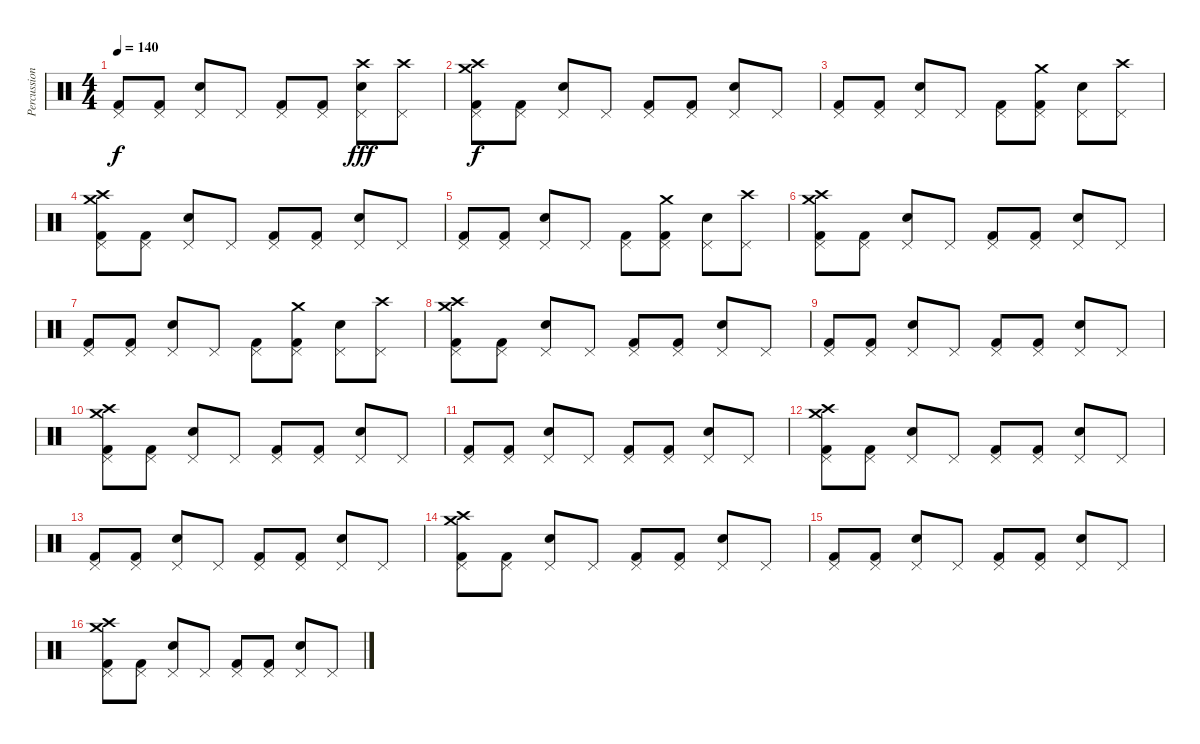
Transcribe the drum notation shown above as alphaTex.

\track ("Percussion" "Percussion") {instrument percussion}
\staff {score}
\articulation defaults
\ts (4 4)
\tempo 140
\clef neutral
\ks c
("Pedal Hi-Hat (hit)" "Kick (hit) 2").8{dy f} ("Pedal Hi-Hat (hit)" "Kick (hit) 2").8 ("Pedal Hi-Hat (hit)" "Electric Snare (hit)").8 "Pedal Hi-Hat (hit)".8 ("Pedal Hi-Hat (hit)" "Kick (hit) 2").8 ("Pedal Hi-Hat (hit)" "Kick (hit) 2").8 ("Pedal Hi-Hat (hit)" "Electric Snare (hit)" "Crash high (hit)").8{dy fff} ("Pedal Hi-Hat (hit)" "Crash high (hit)").8 |
("Pedal Hi-Hat (hit)" "Kick (hit) 2" "Crash high (hit)" "Crash medium (hit)").8{dy f} ("Pedal Hi-Hat (hit)" "Kick (hit) 2").8 ("Pedal Hi-Hat (hit)" "Electric Snare (hit)").8 "Pedal Hi-Hat (hit)".8 ("Pedal Hi-Hat (hit)" "Kick (hit) 2").8 ("Pedal Hi-Hat (hit)" "Kick (hit) 2").8 ("Pedal Hi-Hat (hit)" "Electric Snare (hit)").8 "Pedal Hi-Hat (hit)".8 |
("Pedal Hi-Hat (hit)" "Kick (hit) 2").8 ("Pedal Hi-Hat (hit)" "Kick (hit) 2").8 ("Pedal Hi-Hat (hit)" "Electric Snare (hit)").8 "Pedal Hi-Hat (hit)".8 ("Pedal Hi-Hat (hit)" "Kick (hit) 2").8 ("Pedal Hi-Hat (hit)" "Kick (hit) 2" "Crash medium (hit)").8 ("Pedal Hi-Hat (hit)" "Electric Snare (hit)").8 ("Pedal Hi-Hat (hit)" "Crash high (hit)").8 |
("Pedal Hi-Hat (hit)" "Kick (hit) 2" "Crash high (hit)" "Crash medium (hit)").8 ("Pedal Hi-Hat (hit)" "Kick (hit) 2").8 ("Pedal Hi-Hat (hit)" "Electric Snare (hit)").8 "Pedal Hi-Hat (hit)".8 ("Pedal Hi-Hat (hit)" "Kick (hit) 2").8 ("Pedal Hi-Hat (hit)" "Kick (hit) 2").8 ("Pedal Hi-Hat (hit)" "Electric Snare (hit)").8 "Pedal Hi-Hat (hit)".8 |
("Pedal Hi-Hat (hit)" "Kick (hit) 2").8 ("Pedal Hi-Hat (hit)" "Kick (hit) 2").8 ("Pedal Hi-Hat (hit)" "Electric Snare (hit)").8 "Pedal Hi-Hat (hit)".8 ("Pedal Hi-Hat (hit)" "Kick (hit) 2").8 ("Pedal Hi-Hat (hit)" "Kick (hit) 2" "Crash medium (hit)").8 ("Pedal Hi-Hat (hit)" "Electric Snare (hit)").8 ("Pedal Hi-Hat (hit)" "Crash high (hit)").8 |
("Pedal Hi-Hat (hit)" "Kick (hit) 2" "Crash high (hit)" "Crash medium (hit)").8 ("Pedal Hi-Hat (hit)" "Kick (hit) 2").8 ("Pedal Hi-Hat (hit)" "Electric Snare (hit)").8 "Pedal Hi-Hat (hit)".8 ("Pedal Hi-Hat (hit)" "Kick (hit) 2").8 ("Pedal Hi-Hat (hit)" "Kick (hit) 2").8 ("Pedal Hi-Hat (hit)" "Electric Snare (hit)").8 "Pedal Hi-Hat (hit)".8 |
("Pedal Hi-Hat (hit)" "Kick (hit) 2").8 ("Pedal Hi-Hat (hit)" "Kick (hit) 2").8 ("Pedal Hi-Hat (hit)" "Electric Snare (hit)").8 "Pedal Hi-Hat (hit)".8 ("Pedal Hi-Hat (hit)" "Kick (hit) 2").8 ("Pedal Hi-Hat (hit)" "Kick (hit) 2" "Crash medium (hit)").8 ("Pedal Hi-Hat (hit)" "Electric Snare (hit)").8 ("Pedal Hi-Hat (hit)" "Crash high (hit)").8 |
("Pedal Hi-Hat (hit)" "Kick (hit) 2" "Crash high (hit)" "Crash medium (hit)").8 ("Pedal Hi-Hat (hit)" "Kick (hit) 2").8 ("Pedal Hi-Hat (hit)" "Electric Snare (hit)").8 "Pedal Hi-Hat (hit)".8 ("Pedal Hi-Hat (hit)" "Kick (hit) 2").8 ("Pedal Hi-Hat (hit)" "Kick (hit) 2").8 ("Pedal Hi-Hat (hit)" "Electric Snare (hit)").8 "Pedal Hi-Hat (hit)".8 |
("Pedal Hi-Hat (hit)" "Kick (hit) 2").8 ("Pedal Hi-Hat (hit)" "Kick (hit) 2").8 ("Pedal Hi-Hat (hit)" "Electric Snare (hit)").8 "Pedal Hi-Hat (hit)".8 ("Pedal Hi-Hat (hit)" "Kick (hit) 2").8 ("Pedal Hi-Hat (hit)" "Kick (hit) 2").8 ("Pedal Hi-Hat (hit)" "Electric Snare (hit)").8 "Pedal Hi-Hat (hit)".8 |
("Pedal Hi-Hat (hit)" "Kick (hit) 2" "Crash high (hit)" "Crash medium (hit)").8 ("Pedal Hi-Hat (hit)" "Kick (hit) 2").8 ("Pedal Hi-Hat (hit)" "Electric Snare (hit)").8 "Pedal Hi-Hat (hit)".8 ("Pedal Hi-Hat (hit)" "Kick (hit) 2").8 ("Pedal Hi-Hat (hit)" "Kick (hit) 2").8 ("Pedal Hi-Hat (hit)" "Electric Snare (hit)").8 "Pedal Hi-Hat (hit)".8 |
("Pedal Hi-Hat (hit)" "Kick (hit) 2").8 ("Pedal Hi-Hat (hit)" "Kick (hit) 2").8 ("Pedal Hi-Hat (hit)" "Electric Snare (hit)").8 "Pedal Hi-Hat (hit)".8 ("Pedal Hi-Hat (hit)" "Kick (hit) 2").8 ("Pedal Hi-Hat (hit)" "Kick (hit) 2").8 ("Pedal Hi-Hat (hit)" "Electric Snare (hit)").8 "Pedal Hi-Hat (hit)".8 |
("Pedal Hi-Hat (hit)" "Kick (hit) 2" "Crash high (hit)" "Crash medium (hit)").8 ("Pedal Hi-Hat (hit)" "Kick (hit) 2").8 ("Pedal Hi-Hat (hit)" "Electric Snare (hit)").8 "Pedal Hi-Hat (hit)".8 ("Pedal Hi-Hat (hit)" "Kick (hit) 2").8 ("Pedal Hi-Hat (hit)" "Kick (hit) 2").8 ("Pedal Hi-Hat (hit)" "Electric Snare (hit)").8 "Pedal Hi-Hat (hit)".8 |
("Pedal Hi-Hat (hit)" "Kick (hit) 2").8 ("Pedal Hi-Hat (hit)" "Kick (hit) 2").8 ("Pedal Hi-Hat (hit)" "Electric Snare (hit)").8 "Pedal Hi-Hat (hit)".8 ("Pedal Hi-Hat (hit)" "Kick (hit) 2").8 ("Pedal Hi-Hat (hit)" "Kick (hit) 2").8 ("Pedal Hi-Hat (hit)" "Electric Snare (hit)").8 "Pedal Hi-Hat (hit)".8 |
("Pedal Hi-Hat (hit)" "Kick (hit) 2" "Crash high (hit)" "Crash medium (hit)").8 ("Pedal Hi-Hat (hit)" "Kick (hit) 2").8 ("Pedal Hi-Hat (hit)" "Electric Snare (hit)").8 "Pedal Hi-Hat (hit)".8 ("Pedal Hi-Hat (hit)" "Kick (hit) 2").8 ("Pedal Hi-Hat (hit)" "Kick (hit) 2").8 ("Pedal Hi-Hat (hit)" "Electric Snare (hit)").8 "Pedal Hi-Hat (hit)".8 |
("Pedal Hi-Hat (hit)" "Kick (hit) 2").8 ("Pedal Hi-Hat (hit)" "Kick (hit) 2").8 ("Pedal Hi-Hat (hit)" "Electric Snare (hit)").8 "Pedal Hi-Hat (hit)".8 ("Pedal Hi-Hat (hit)" "Kick (hit) 2").8 ("Pedal Hi-Hat (hit)" "Kick (hit) 2").8 ("Pedal Hi-Hat (hit)" "Electric Snare (hit)").8 "Pedal Hi-Hat (hit)".8 |
("Pedal Hi-Hat (hit)" "Kick (hit) 2" "Crash high (hit)" "Crash medium (hit)").8 ("Pedal Hi-Hat (hit)" "Kick (hit) 2").8 ("Pedal Hi-Hat (hit)" "Electric Snare (hit)").8 "Pedal Hi-Hat (hit)".8 ("Pedal Hi-Hat (hit)" "Kick (hit) 2").8 ("Pedal Hi-Hat (hit)" "Kick (hit) 2").8 ("Pedal Hi-Hat (hit)" "Electric Snare (hit)").8 "Pedal Hi-Hat (hit)".8
